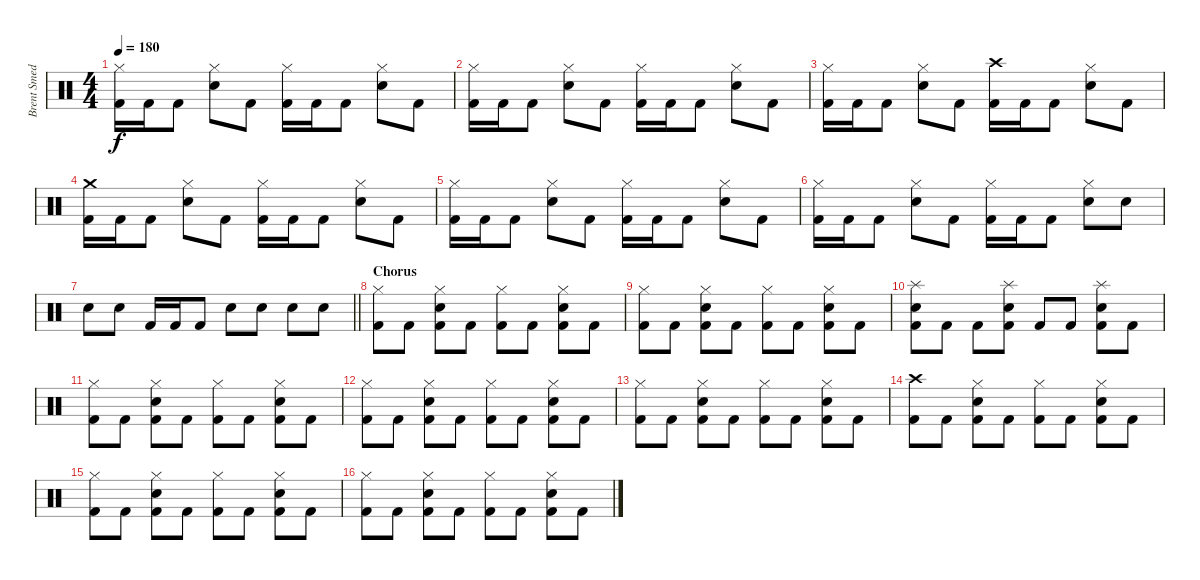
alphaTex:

\track ("Brent Smedley" "Brent Smed") {instrument percussion}
\staff {score}
\articulation defaults
\ts (4 4)
\tempo 180
\clef neutral
\ks c
("Hi-Hat (closed)" "Kick (hit) 2").16{dy f} "Kick (hit) 2".16 "Kick (hit) 2".8 ("Hi-Hat (closed)" "Snare (hit) 2").8 "Kick (hit) 2".8 ("Hi-Hat (closed)" "Kick (hit) 2").16 "Kick (hit) 2".16 "Kick (hit) 2".8 ("Hi-Hat (closed)" "Snare (hit) 2").8 "Kick (hit) 2".8 |
("Hi-Hat (closed)" "Kick (hit) 2").16 "Kick (hit) 2".16 "Kick (hit) 2".8 ("Hi-Hat (closed)" "Snare (hit) 2").8 "Kick (hit) 2".8 ("Hi-Hat (closed)" "Kick (hit) 2").16 "Kick (hit) 2".16 "Kick (hit) 2".8 ("Hi-Hat (closed)" "Snare (hit) 2").8 "Kick (hit) 2".8 |
("Hi-Hat (closed)" "Kick (hit) 2").16 "Kick (hit) 2".16 "Kick (hit) 2".8 ("Hi-Hat (closed)" "Snare (hit) 2").8 "Kick (hit) 2".8 ("Crash high (hit)" "Kick (hit) 2").16 "Kick (hit) 2".16 "Kick (hit) 2".8 ("Hi-Hat (closed)" "Snare (hit) 2").8 "Kick (hit) 2".8 |
("Crash medium (hit)" "Kick (hit) 2").16 "Kick (hit) 2".16 "Kick (hit) 2".8 ("Hi-Hat (closed)" "Snare (hit) 2").8 "Kick (hit) 2".8 ("Hi-Hat (closed)" "Kick (hit) 2").16 "Kick (hit) 2".16 "Kick (hit) 2".8 ("Hi-Hat (closed)" "Snare (hit) 2").8 "Kick (hit) 2".8 |
("Hi-Hat (closed)" "Kick (hit) 2").16 "Kick (hit) 2".16 "Kick (hit) 2".8 ("Hi-Hat (closed)" "Snare (hit) 2").8 "Kick (hit) 2".8 ("Hi-Hat (closed)" "Kick (hit) 2").16 "Kick (hit) 2".16 "Kick (hit) 2".8 ("Hi-Hat (closed)" "Snare (hit) 2").8 "Kick (hit) 2".8 |
("Hi-Hat (closed)" "Kick (hit) 2").16 "Kick (hit) 2".16 "Kick (hit) 2".8 ("Hi-Hat (closed)" "Snare (hit) 2").8 "Kick (hit) 2".8 ("Hi-Hat (closed)" "Kick (hit) 2").16 "Kick (hit) 2".16 "Kick (hit) 2".8 ("Hi-Hat (closed)" "Snare (hit) 2").8 "Snare (hit) 2".8 |
\barLineRight lightlight "Snare (hit) 2".8 "Snare (hit) 2".8 "Kick (hit) 2".16 "Kick (hit) 2".16 "Kick (hit) 2".8 "Snare (hit) 2".8 "Snare (hit) 2".8 "Snare (hit) 2".8 "Snare (hit) 2".8
|
\section ("" "Chorus")
("Hi-Hat (closed)" "Kick (hit) 2").8 "Kick (hit) 2".8 ("Hi-Hat (closed)" "Snare (hit) 2" "Kick (hit) 2").8 "Kick (hit) 2".8 ("Hi-Hat (closed)" "Kick (hit) 2").8 "Kick (hit) 2".8 ("Hi-Hat (closed)" "Snare (hit) 2" "Kick (hit) 2").8 "Kick (hit) 2".8 |
("Hi-Hat (closed)" "Kick (hit) 2").8 "Kick (hit) 2".8 ("Hi-Hat (closed)" "Snare (hit) 2" "Kick (hit) 2").8 "Kick (hit) 2".8 ("Hi-Hat (closed)" "Kick (hit) 2").8 "Kick (hit) 2".8 ("Hi-Hat (closed)" "Snare (hit) 2" "Kick (hit) 2").8 "Kick (hit) 2".8 |
("Splash (hit)" "Snare (hit) 2" "Kick (hit) 2").8 "Kick (hit) 2".8 "Kick (hit) 2".8 ("Splash (hit)" "Snare (hit) 2" "Kick (hit) 2").8 "Kick (hit) 2".8 "Kick (hit) 2".8 ("Splash (hit)" "Snare (hit) 2" "Kick (hit) 2").8 "Kick (hit) 2".8 |
("Hi-Hat (closed)" "Kick (hit) 2").8 "Kick (hit) 2".8 ("Hi-Hat (closed)" "Snare (hit) 2" "Kick (hit) 2").8 "Kick (hit) 2".8 ("Hi-Hat (closed)" "Kick (hit) 2").8 "Kick (hit) 2".8 ("Hi-Hat (closed)" "Snare (hit) 2" "Kick (hit) 2").8 "Kick (hit) 2".8 |
("Hi-Hat (closed)" "Kick (hit) 2").8 "Kick (hit) 2".8 ("Hi-Hat (closed)" "Snare (hit) 2" "Kick (hit) 2").8 "Kick (hit) 2".8 ("Hi-Hat (closed)" "Kick (hit) 2").8 "Kick (hit) 2".8 ("Hi-Hat (closed)" "Snare (hit) 2" "Kick (hit) 2").8 "Kick (hit) 2".8 |
("Hi-Hat (closed)" "Kick (hit) 2").8 "Kick (hit) 2".8 ("Hi-Hat (closed)" "Snare (hit) 2" "Kick (hit) 2").8 "Kick (hit) 2".8 ("Hi-Hat (closed)" "Kick (hit) 2").8 "Kick (hit) 2".8 ("Hi-Hat (closed)" "Snare (hit) 2" "Kick (hit) 2").8 "Kick (hit) 2".8 |
("Crash high (hit)" "Kick (hit) 2").8 "Kick (hit) 2".8 ("Hi-Hat (closed)" "Snare (hit) 2" "Kick (hit) 2").8 "Kick (hit) 2".8 ("Hi-Hat (closed)" "Kick (hit) 2").8 "Kick (hit) 2".8 ("Hi-Hat (closed)" "Snare (hit) 2" "Kick (hit) 2").8 "Kick (hit) 2".8 |
("Hi-Hat (closed)" "Kick (hit) 2").8 "Kick (hit) 2".8 ("Hi-Hat (closed)" "Snare (hit) 2" "Kick (hit) 2").8 "Kick (hit) 2".8 ("Hi-Hat (closed)" "Kick (hit) 2").8 "Kick (hit) 2".8 ("Hi-Hat (closed)" "Snare (hit) 2" "Kick (hit) 2").8 "Kick (hit) 2".8 |
("Hi-Hat (closed)" "Kick (hit) 2").8 "Kick (hit) 2".8 ("Hi-Hat (closed)" "Snare (hit) 2" "Kick (hit) 2").8 "Kick (hit) 2".8 ("Hi-Hat (closed)" "Kick (hit) 2").8 "Kick (hit) 2".8 ("Hi-Hat (closed)" "Snare (hit) 2" "Kick (hit) 2").8 "Kick (hit) 2".8
